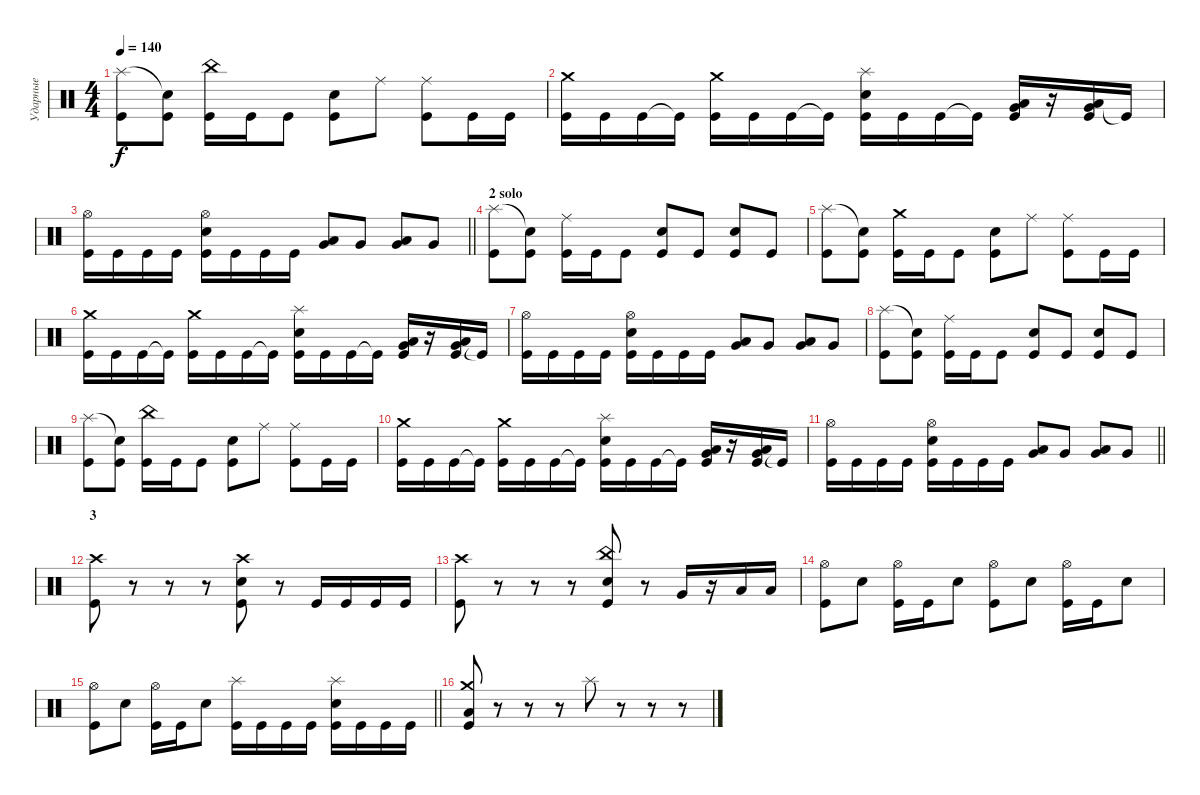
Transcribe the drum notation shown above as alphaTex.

\track ("Ударные" "Ударные") {instrument percussion}
\staff {score}
\articulation defaults
\ts (4 4)
\tempo 140
\clef neutral
\ks c
("Splash (hit)" "Kick (hit)").8{dy f} ("Snare (hit)"{t} "Kick (hit)").8 ("China (hit)" "Kick (hit)").16 "Kick (hit)".16 "Kick (hit)".8 ("Electric Snare (hit)" "Kick (hit)").8 "Ride (middle)".8 ("Ride (middle)" "Kick (hit)").8 "Kick (hit)".16 "Kick (hit)".16 |
("Crash medium (hit)" "Kick (hit)").16 "Kick (hit)".16 "Kick (hit)".16 "Kick (hit)"{t}.16 ("Crash medium (hit)" "Kick (hit)").16 "Kick (hit)".16 "Kick (hit)".16 "Kick (hit)"{t}.16 ("Splash (hit)" "Electric Snare (hit)" "Kick (hit)").16 "Kick (hit)".16 "Kick (hit)".16 "Kick (hit)"{t}.16 ("Low Tom (hit)" "Very Low Tom (hit)" "Kick (hit)").16 r.16 ("Low Tom (hit)" "Very Low Tom (hit)" "Kick (hit)").16 "Kick (hit)"{t}.16 |
\barLineRight lightlight
("Hi-Hat (open)" "Kick (hit)").16 "Kick (hit)".16 "Kick (hit)".16 "Kick (hit)".16 ("Hi-Hat (open)" "Electric Snare (hit)" "Kick (hit)").16 "Kick (hit)".16 "Kick (hit)".16 "Kick (hit)".16 ("Very Low Tom (hit)" "Low Floor Tom (hit)").8 "Very Low Tom (hit)".8 ("Very Low Tom (hit)" "Low Floor Tom (hit)").8 "Very Low Tom (hit)".8 |
\section ("" "2 solo")
("Splash (hit)" "Kick (hit)").8 ("Snare (hit)"{t} "Kick (hit)").8 ("Ride (middle)" "Kick (hit)").16 "Kick (hit)".16 "Kick (hit)".8 ("Electric Snare (hit)" "Kick (hit)").8 "Kick (hit)".8 ("Electric Snare (hit)" "Kick (hit)").8 "Kick (hit)".8 |
("Splash (hit)" "Kick (hit)").8 ("Snare (hit)"{t} "Kick (hit)").8 ("Crash medium (hit)" "Kick (hit)").16 "Kick (hit)".16 "Kick (hit)".8 ("Electric Snare (hit)" "Kick (hit)").8 "Ride (middle)".8 ("Ride (middle)" "Kick (hit)").8 "Kick (hit)".16 "Kick (hit)".16 |
("Crash medium (hit)" "Kick (hit)").16 "Kick (hit)".16 "Kick (hit)".16 "Kick (hit)"{t}.16 ("Crash medium (hit)" "Kick (hit)").16 "Kick (hit)".16 "Kick (hit)".16 "Kick (hit)"{t}.16 ("Splash (hit)" "Electric Snare (hit)" "Kick (hit)").16 "Kick (hit)".16 "Kick (hit)".16 "Kick (hit)"{t}.16 ("Low Tom (hit)" "Very Low Tom (hit)" "Kick (hit)").16 r.16 ("Low Tom (hit)" "Very Low Tom (hit)" "Kick (hit)").16 "Kick (hit)"{t}.16 |
("Hi-Hat (open)" "Kick (hit)").16 "Kick (hit)".16 "Kick (hit)".16 "Kick (hit)".16 ("Hi-Hat (open)" "Electric Snare (hit)" "Kick (hit)").16 "Kick (hit)".16 "Kick (hit)".16 "Kick (hit)".16 ("Very Low Tom (hit)" "Low Floor Tom (hit)").8 "Very Low Tom (hit)".8 ("Very Low Tom (hit)" "Low Floor Tom (hit)").8 "Very Low Tom (hit)".8 |
("Splash (hit)" "Kick (hit)").8 ("Snare (hit)"{t} "Kick (hit)").8 ("Ride (middle)" "Kick (hit)").16 "Kick (hit)".16 "Kick (hit)".8 ("Electric Snare (hit)" "Kick (hit)").8 "Kick (hit)".8 ("Electric Snare (hit)" "Kick (hit)").8 "Kick (hit)".8 |
("Splash (hit)" "Kick (hit)").8 ("Snare (hit)"{t} "Kick (hit)").8 ("China (hit)" "Kick (hit)").16 "Kick (hit)".16 "Kick (hit)".8 ("Electric Snare (hit)" "Kick (hit)").8 "Ride (middle)".8 ("Ride (middle)" "Kick (hit)").8 "Kick (hit)".16 "Kick (hit)".16 |
("Crash medium (hit)" "Kick (hit)").16 "Kick (hit)".16 "Kick (hit)".16 "Kick (hit)"{t}.16 ("Crash medium (hit)" "Kick (hit)").16 "Kick (hit)".16 "Kick (hit)".16 "Kick (hit)"{t}.16 ("Splash (hit)" "Electric Snare (hit)" "Kick (hit)").16 "Kick (hit)".16 "Kick (hit)".16 "Kick (hit)"{t}.16 ("Low Tom (hit)" "Very Low Tom (hit)" "Kick (hit)").16 r.16 ("Low Tom (hit)" "Very Low Tom (hit)" "Kick (hit)").16 "Kick (hit)"{t}.16 |
\barLineRight lightlight
("Hi-Hat (open)" "Kick (hit)").16 "Kick (hit)".16 "Kick (hit)".16 "Kick (hit)".16 ("Hi-Hat (open)" "Electric Snare (hit)" "Kick (hit)").16 "Kick (hit)".16 "Kick (hit)".16 "Kick (hit)".16 ("Very Low Tom (hit)" "Low Floor Tom (hit)").8 "Very Low Tom (hit)".8 ("Very Low Tom (hit)" "Low Floor Tom (hit)").8 "Very Low Tom (hit)".8 |
\section ("" "3")
("Crash high (hit)" "Kick (hit)").8 r.8 r.8 r.8 ("Crash high (hit)" "Electric Snare (hit)" "Kick (hit)").8 r.8 "Kick (hit)".16 "Kick (hit)".16 "Kick (hit)".16 "Kick (hit)".16 |
("Crash high (hit)" "Kick (hit)").8 r.8 r.8 r.8 ("China (hit)" "Electric Snare (hit)" "Kick (hit)").8 r.8 "Very Low Tom (hit)".16 r.16 "Low Tom (hit)".16 "Low Tom (hit)".16 |
("Hi-Hat (open)" "Kick (hit)").8 "Electric Snare (hit)".8 ("Hi-Hat (open)" "Kick (hit)").16 "Kick (hit)".16 "Electric Snare (hit)".8 ("Hi-Hat (open)" "Kick (hit)").8 "Electric Snare (hit)".8 ("Hi-Hat (open)" "Kick (hit)").16 "Kick (hit)".16 "Electric Snare (hit)".8 |
\barLineRight lightlight
("Hi-Hat (open)" "Kick (hit)").8 "Electric Snare (hit)".8 ("Hi-Hat (open)" "Kick (hit)").16 "Kick (hit)".16 "Electric Snare (hit)".8 ("Splash (hit)" "Kick (hit)").16 "Kick (hit)".16 "Kick (hit)".16 "Kick (hit)".16 ("Splash (hit)" "Electric Snare (hit)" "Kick (hit)").16 "Kick (hit)".16 "Kick (hit)".16 "Kick (hit)".16 |
\section ("" " ")
("Crash medium (hit)" "Low Floor Tom (hit)" "Kick (hit)").8 r.8 r.8 r.8 "Splash (hit)".8 r.8 r.8 r.8
